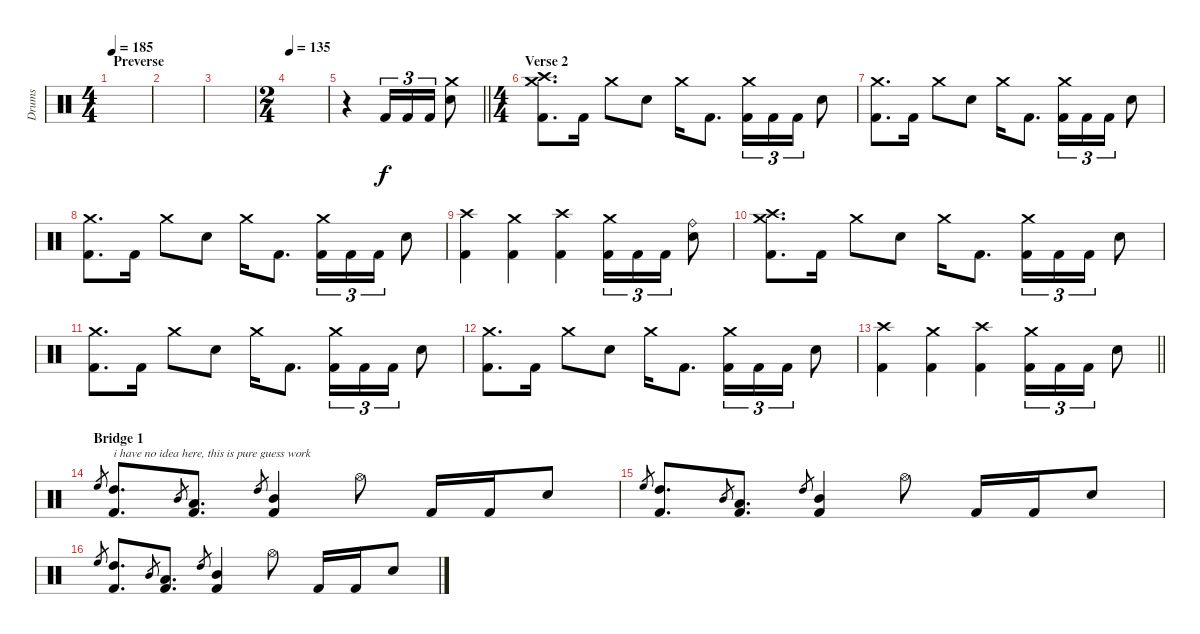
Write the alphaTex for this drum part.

\track ("Drums" "Drums") {instrument percussion}
\staff {score}
\articulation defaults
\ts (4 4)
\section ("" "Preverse")
\tempo 185
\clef neutral
\ks c
|
|
|
\ts (2 4)
\tempo 135
|
\barLineRight lightlight
r.4 "Kick (hit) 2".16{tu (3 2)} "Kick (hit) 2".16{tu (3 2)} "Kick (hit) 2".16{tu (3 2)} ("Crash medium (hit)" "Electric Snare (hit)").8 |
\ts (4 4)
\section ("" "Verse 2")
("Crash high (hit)" "Crash medium (hit)" "Kick (hit) 2").8{d} "Kick (hit) 2".16 "Crash medium (hit)".8 "Electric Snare (hit)".8 "Crash medium (hit)".16 "Kick (hit) 2".8{d} ("Crash medium (hit)" "Kick (hit) 2").16{tu (3 2)} "Kick (hit) 2".16{tu (3 2)} "Kick (hit) 2".16{tu (3 2)} "Electric Snare (hit)".8 |
("Crash medium (hit)" "Kick (hit) 2").8{d} "Kick (hit) 2".16 "Crash medium (hit)".8 "Electric Snare (hit)".8 "Crash medium (hit)".16 "Kick (hit) 2".8{d} ("Crash medium (hit)" "Kick (hit) 2").16{tu (3 2)} "Kick (hit) 2".16{tu (3 2)} "Kick (hit) 2".16{tu (3 2)} "Electric Snare (hit)".8 |
("Crash medium (hit)" "Kick (hit) 2").8{d} "Kick (hit) 2".16 "Crash medium (hit)".8 "Electric Snare (hit)".8 "Crash medium (hit)".16 "Kick (hit) 2".8{d} ("Crash medium (hit)" "Kick (hit) 2").16{tu (3 2)} "Kick (hit) 2".16{tu (3 2)} "Kick (hit) 2".16{tu (3 2)} "Electric Snare (hit)".8 |
("Crash high (hit)" "Kick (hit) 2").4 ("Crash medium (hit)" "Kick (hit) 2").4 ("Crash high (hit)" "Kick (hit) 2").4 ("Crash medium (hit)" "Kick (hit) 2").16{tu (3 2)} "Kick (hit) 2".16{tu (3 2)} "Kick (hit) 2".16{tu (3 2)} ("Ride (bell)" "Electric Snare (hit)").8 |
("Crash high (hit)" "Crash medium (hit)" "Kick (hit) 2").8{d} "Kick (hit) 2".16 "Crash medium (hit)".8 "Electric Snare (hit)".8 "Crash medium (hit)".16 "Kick (hit) 2".8{d} ("Crash medium (hit)" "Kick (hit) 2").16{tu (3 2)} "Kick (hit) 2".16{tu (3 2)} "Kick (hit) 2".16{tu (3 2)} "Electric Snare (hit)".8 |
("Crash medium (hit)" "Kick (hit) 2").8{d} "Kick (hit) 2".16 "Crash medium (hit)".8 "Electric Snare (hit)".8 "Crash medium (hit)".16 "Kick (hit) 2".8{d} ("Crash medium (hit)" "Kick (hit) 2").16{tu (3 2)} "Kick (hit) 2".16{tu (3 2)} "Kick (hit) 2".16{tu (3 2)} "Electric Snare (hit)".8 |
("Crash medium (hit)" "Kick (hit) 2").8{d} "Kick (hit) 2".16 "Crash medium (hit)".8 "Electric Snare (hit)".8 "Crash medium (hit)".16 "Kick (hit) 2".8{d} ("Crash medium (hit)" "Kick (hit) 2").16{tu (3 2)} "Kick (hit) 2".16{tu (3 2)} "Kick (hit) 2".16{tu (3 2)} "Electric Snare (hit)".8 |
\barLineRight lightlight
("Crash high (hit)" "Kick (hit) 2").4 ("Crash medium (hit)" "Kick (hit) 2").4 ("Crash high (hit)" "Kick (hit) 2").4 ("Crash medium (hit)" "Kick (hit) 2").16{tu (3 2)} "Kick (hit) 2".16{tu (3 2)} "Kick (hit) 2".16{tu (3 2)} "Electric Snare (hit)".8 |
\section ("" "Bridge 1")
"High Floor Tom (hit)".8{gr} ("High Tom (hit)" "Kick (hit) 2").8{d txt "i have no idea here, this is pure guess work"} "Mid Tom (hit)".8{gr} ("Low Tom (hit)" "Kick (hit) 2").8{d} "High Tom (hit)".8{gr} ("Mid Tom (hit)" "Kick (hit) 2").4 "Hi-Hat (open)".8 "Kick (hit) 2".16 "Kick (hit) 2".16 "Electric Snare (hit)".8 |
"High Floor Tom (hit)".8{gr} ("High Tom (hit)" "Kick (hit) 2").8{d} "Mid Tom (hit)".8{gr} ("Low Tom (hit)" "Kick (hit) 2").8{d} "High Tom (hit)".8{gr} ("Mid Tom (hit)" "Kick (hit) 2").4 "Hi-Hat (open)".8 "Kick (hit) 2".16 "Kick (hit) 2".16 "Electric Snare (hit)".8 |
"High Floor Tom (hit)".8{gr} ("High Tom (hit)" "Kick (hit) 2").8{d} "Mid Tom (hit)".8{gr} ("Low Tom (hit)" "Kick (hit) 2").8{d} "High Tom (hit)".8{gr} ("Mid Tom (hit)" "Kick (hit) 2").4 "Hi-Hat (open)".8 "Kick (hit) 2".16 "Kick (hit) 2".16 "Electric Snare (hit)".8
